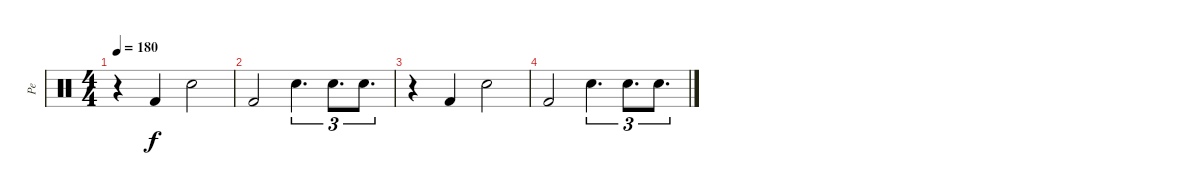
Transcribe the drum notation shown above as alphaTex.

\track ("Pe" "Pe") {instrument percussion}
\staff {score}
\articulation defaults
\ts (4 4)
\tempo 180
\clef neutral
\ks c
r.4{dy f} "Kick (hit) 2".4 "Electric Snare (hit)".2 |
"Kick (hit) 2".2 "Electric Snare (hit)".4{d tu (3 2)} "Electric Snare (hit)".8{d tu (3 2)} "Electric Snare (hit)".8{d tu (3 2)} |
r.4 "Kick (hit) 2".4 "Electric Snare (hit)".2 |
"Kick (hit) 2".2 "Electric Snare (hit)".4{d tu (3 2)} "Electric Snare (hit)".8{d tu (3 2)} "Electric Snare (hit)".8{d tu (3 2)}
